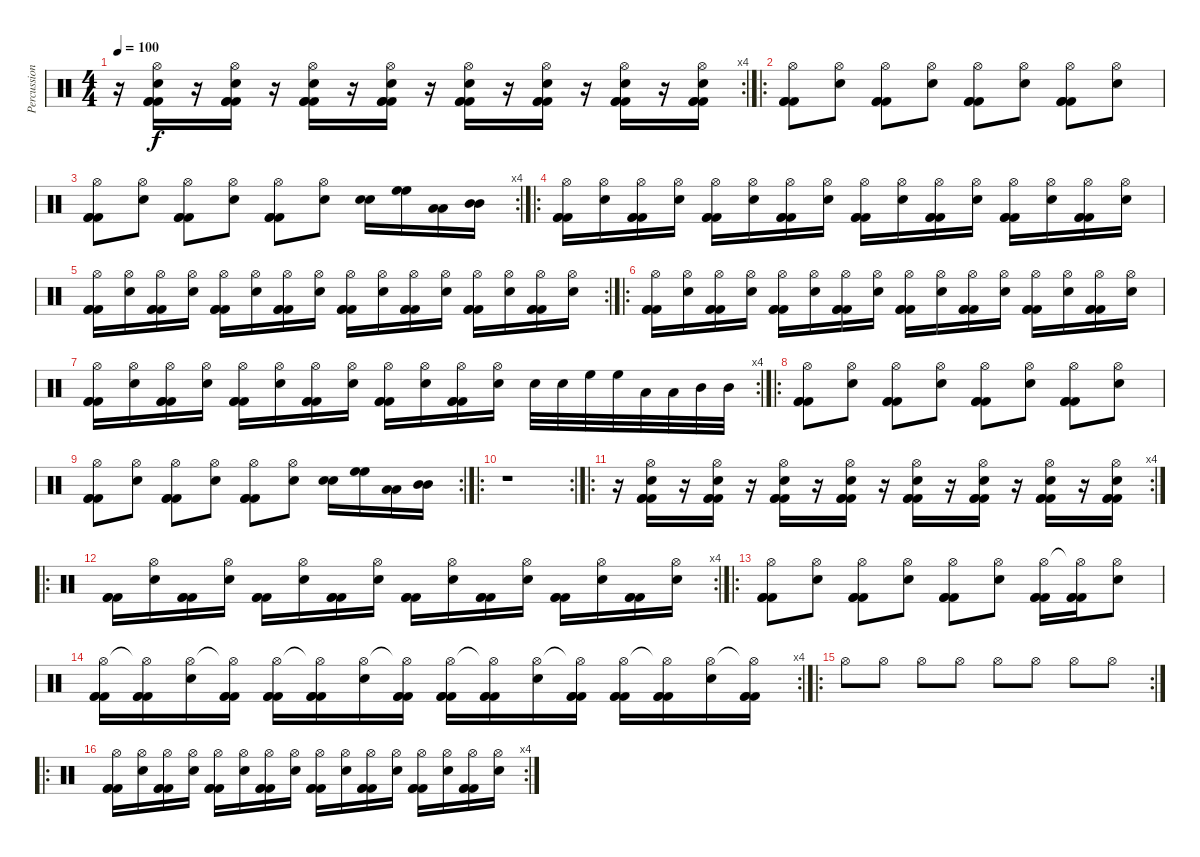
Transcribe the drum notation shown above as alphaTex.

\track ("Percussion" "Percussion") {instrument percussion}
\staff {score}
\articulation defaults
\rc 4
\ts (4 4)
\tempo 100
\clef neutral
\ks c
r.16{dy f} ("Hi-Hat (open)" "Snare (hit) 2" "Kick (hit) 2" "Kick (hit) 2" "Kick (hit) 2").16 r.16 ("Hi-Hat (open)" "Snare (hit) 2" "Kick (hit) 2" "Kick (hit) 2" "Kick (hit) 2").16 r.16 ("Hi-Hat (open)" "Snare (hit) 2" "Kick (hit) 2" "Kick (hit) 2" "Kick (hit) 2").16 r.16 ("Hi-Hat (open)" "Snare (hit) 2" "Kick (hit) 2" "Kick (hit) 2" "Kick (hit) 2").16 r.16 ("Hi-Hat (open)" "Snare (hit) 2" "Kick (hit) 2" "Kick (hit) 2" "Kick (hit) 2").16 r.16 ("Hi-Hat (open)" "Snare (hit) 2" "Kick (hit) 2" "Kick (hit) 2" "Kick (hit) 2").16 r.16 ("Hi-Hat (open)" "Snare (hit) 2" "Kick (hit) 2" "Kick (hit) 2" "Kick (hit) 2").16 r.16 ("Hi-Hat (open)" "Snare (hit) 2" "Kick (hit) 2" "Kick (hit) 2" "Kick (hit) 2").16 |
\ro
("Hi-Hat (open)" "Kick (hit) 2" "Kick (hit) 2" "Kick (hit) 2").8 ("Hi-Hat (open)" "Snare (hit) 2").8 ("Hi-Hat (open)" "Kick (hit) 2" "Kick (hit) 2" "Kick (hit) 2").8 ("Hi-Hat (open)" "Snare (hit) 2").8 ("Hi-Hat (open)" "Kick (hit) 2" "Kick (hit) 2" "Kick (hit) 2").8 ("Hi-Hat (open)" "Snare (hit) 2").8 ("Hi-Hat (open)" "Kick (hit) 2" "Kick (hit) 2" "Kick (hit) 2").8 ("Hi-Hat (open)" "Snare (hit) 2").8 |
\rc 4
("Hi-Hat (open)" "Kick (hit) 2" "Kick (hit) 2" "Kick (hit) 2").8 ("Hi-Hat (open)" "Snare (hit) 2").8 ("Hi-Hat (open)" "Kick (hit) 2" "Kick (hit) 2" "Kick (hit) 2").8 ("Hi-Hat (open)" "Snare (hit) 2").8 ("Hi-Hat (open)" "Kick (hit) 2" "Kick (hit) 2" "Kick (hit) 2").8 ("Hi-Hat (open)" "Snare (hit) 2").8 ("Snare (hit) 2" "Snare (hit) 2").16 ("High Floor Tom (hit)" "High Floor Tom (hit)").16 ("Low Tom (hit)" "Low Tom (hit)").16 ("Mid Tom (hit)" "Mid Tom (hit)").16 |
\ro
("Hi-Hat (open)" "Kick (hit) 2" "Kick (hit) 2" "Kick (hit) 2").16 ("Hi-Hat (open)" "Snare (hit) 2").16 ("Hi-Hat (open)" "Kick (hit) 2" "Kick (hit) 2" "Kick (hit) 2").16 ("Hi-Hat (open)" "Snare (hit) 2").16 ("Hi-Hat (open)" "Kick (hit) 2" "Kick (hit) 2" "Kick (hit) 2").16 ("Hi-Hat (open)" "Snare (hit) 2").16 ("Hi-Hat (open)" "Kick (hit) 2" "Kick (hit) 2" "Kick (hit) 2").16 ("Hi-Hat (open)" "Snare (hit) 2").16 ("Hi-Hat (open)" "Kick (hit) 2" "Kick (hit) 2" "Kick (hit) 2").16 ("Hi-Hat (open)" "Snare (hit) 2").16 ("Hi-Hat (open)" "Kick (hit) 2" "Kick (hit) 2" "Kick (hit) 2").16 ("Hi-Hat (open)" "Snare (hit) 2").16 ("Hi-Hat (open)" "Kick (hit) 2" "Kick (hit) 2" "Kick (hit) 2").16 ("Hi-Hat (open)" "Snare (hit) 2").16 ("Hi-Hat (open)" "Kick (hit) 2" "Kick (hit) 2" "Kick (hit) 2").16 ("Hi-Hat (open)" "Snare (hit) 2").16 |
\rc 2
("Hi-Hat (open)" "Kick (hit) 2" "Kick (hit) 2" "Kick (hit) 2").16 ("Hi-Hat (open)" "Snare (hit) 2").16 ("Hi-Hat (open)" "Kick (hit) 2" "Kick (hit) 2" "Kick (hit) 2").16 ("Hi-Hat (open)" "Snare (hit) 2").16 ("Hi-Hat (open)" "Kick (hit) 2" "Kick (hit) 2" "Kick (hit) 2").16 ("Hi-Hat (open)" "Snare (hit) 2").16 ("Hi-Hat (open)" "Kick (hit) 2" "Kick (hit) 2" "Kick (hit) 2").16 ("Hi-Hat (open)" "Snare (hit) 2").16 ("Hi-Hat (open)" "Kick (hit) 2" "Kick (hit) 2" "Kick (hit) 2").16 ("Hi-Hat (open)" "Snare (hit) 2").16 ("Hi-Hat (open)" "Kick (hit) 2" "Kick (hit) 2" "Kick (hit) 2").16 ("Hi-Hat (open)" "Snare (hit) 2").16 ("Hi-Hat (open)" "Kick (hit) 2" "Kick (hit) 2" "Kick (hit) 2").16 ("Hi-Hat (open)" "Snare (hit) 2").16 ("Hi-Hat (open)" "Kick (hit) 2" "Kick (hit) 2" "Kick (hit) 2").16 ("Hi-Hat (open)" "Snare (hit) 2").16 |
\ro
("Hi-Hat (open)" "Kick (hit) 2" "Kick (hit) 2" "Kick (hit) 2").16 ("Hi-Hat (open)" "Snare (hit) 2").16 ("Hi-Hat (open)" "Kick (hit) 2" "Kick (hit) 2" "Kick (hit) 2").16 ("Hi-Hat (open)" "Snare (hit) 2").16 ("Hi-Hat (open)" "Kick (hit) 2" "Kick (hit) 2" "Kick (hit) 2").16 ("Hi-Hat (open)" "Snare (hit) 2").16 ("Hi-Hat (open)" "Kick (hit) 2" "Kick (hit) 2" "Kick (hit) 2").16 ("Hi-Hat (open)" "Snare (hit) 2").16 ("Hi-Hat (open)" "Kick (hit) 2" "Kick (hit) 2" "Kick (hit) 2").16 ("Hi-Hat (open)" "Snare (hit) 2").16 ("Hi-Hat (open)" "Kick (hit) 2" "Kick (hit) 2" "Kick (hit) 2").16 ("Hi-Hat (open)" "Snare (hit) 2").16 ("Hi-Hat (open)" "Kick (hit) 2" "Kick (hit) 2" "Kick (hit) 2").16 ("Hi-Hat (open)" "Snare (hit) 2").16 ("Hi-Hat (open)" "Kick (hit) 2" "Kick (hit) 2" "Kick (hit) 2").16 ("Hi-Hat (open)" "Snare (hit) 2").16 |
\rc 4
("Hi-Hat (open)" "Kick (hit) 2" "Kick (hit) 2" "Kick (hit) 2").16 ("Hi-Hat (open)" "Snare (hit) 2").16 ("Hi-Hat (open)" "Kick (hit) 2" "Kick (hit) 2" "Kick (hit) 2").16 ("Hi-Hat (open)" "Snare (hit) 2").16 ("Hi-Hat (open)" "Kick (hit) 2" "Kick (hit) 2" "Kick (hit) 2").16 ("Hi-Hat (open)" "Snare (hit) 2").16 ("Hi-Hat (open)" "Kick (hit) 2" "Kick (hit) 2" "Kick (hit) 2").16 ("Hi-Hat (open)" "Snare (hit) 2").16 ("Hi-Hat (open)" "Kick (hit) 2" "Kick (hit) 2" "Kick (hit) 2").16 ("Hi-Hat (open)" "Snare (hit) 2").16 ("Hi-Hat (open)" "Kick (hit) 2" "Kick (hit) 2" "Kick (hit) 2").16 ("Hi-Hat (open)" "Snare (hit) 2").16 "Snare (hit) 2".32 "Snare (hit) 2".32 "High Floor Tom (hit)".32 "High Floor Tom (hit)".32 "Low Tom (hit)".32 "Low Tom (hit)".32 "Mid Tom (hit)".32 "Mid Tom (hit)".32 |
\ro
("Hi-Hat (open)" "Kick (hit) 2" "Kick (hit) 2" "Kick (hit) 2").8 ("Hi-Hat (open)" "Snare (hit) 2").8 ("Hi-Hat (open)" "Kick (hit) 2" "Kick (hit) 2" "Kick (hit) 2").8 ("Hi-Hat (open)" "Snare (hit) 2").8 ("Hi-Hat (open)" "Kick (hit) 2" "Kick (hit) 2" "Kick (hit) 2").8 ("Hi-Hat (open)" "Snare (hit) 2").8 ("Hi-Hat (open)" "Kick (hit) 2" "Kick (hit) 2" "Kick (hit) 2").8 ("Hi-Hat (open)" "Snare (hit) 2").8 |
\rc 2
("Hi-Hat (open)" "Kick (hit) 2" "Kick (hit) 2" "Kick (hit) 2").8 ("Hi-Hat (open)" "Snare (hit) 2").8 ("Hi-Hat (open)" "Kick (hit) 2" "Kick (hit) 2" "Kick (hit) 2").8 ("Hi-Hat (open)" "Snare (hit) 2").8 ("Hi-Hat (open)" "Kick (hit) 2" "Kick (hit) 2" "Kick (hit) 2").8 ("Hi-Hat (open)" "Snare (hit) 2").8 ("Snare (hit) 2" "Snare (hit) 2").16 ("High Floor Tom (hit)" "High Floor Tom (hit)").16 ("Low Tom (hit)" "Low Tom (hit)").16 ("Mid Tom (hit)" "Mid Tom (hit)").16 |
\ro
\rc 2
r.1 |
\ro
\rc 4
r.16 ("Hi-Hat (open)" "Snare (hit) 2" "Kick (hit) 2" "Kick (hit) 2" "Kick (hit) 2").16 r.16 ("Hi-Hat (open)" "Snare (hit) 2" "Kick (hit) 2" "Kick (hit) 2" "Kick (hit) 2").16 r.16 ("Hi-Hat (open)" "Snare (hit) 2" "Kick (hit) 2" "Kick (hit) 2" "Kick (hit) 2").16 r.16 ("Hi-Hat (open)" "Snare (hit) 2" "Kick (hit) 2" "Kick (hit) 2" "Kick (hit) 2").16 r.16 ("Hi-Hat (open)" "Snare (hit) 2" "Kick (hit) 2" "Kick (hit) 2" "Kick (hit) 2").16 r.16 ("Hi-Hat (open)" "Snare (hit) 2" "Kick (hit) 2" "Kick (hit) 2" "Kick (hit) 2").16 r.16 ("Hi-Hat (open)" "Snare (hit) 2" "Kick (hit) 2" "Kick (hit) 2" "Kick (hit) 2").16 r.16 ("Hi-Hat (open)" "Snare (hit) 2" "Kick (hit) 2" "Kick (hit) 2" "Kick (hit) 2").16 |
\ro
\rc 4
("Kick (hit) 2" "Kick (hit) 2" "Kick (hit) 2").16 ("Hi-Hat (open)" "Snare (hit) 2").16 ("Kick (hit) 2" "Kick (hit) 2" "Kick (hit) 2").16 ("Hi-Hat (open)" "Snare (hit) 2").16 ("Kick (hit) 2" "Kick (hit) 2" "Kick (hit) 2").16 ("Hi-Hat (open)" "Snare (hit) 2").16 ("Kick (hit) 2" "Kick (hit) 2" "Kick (hit) 2").16 ("Hi-Hat (open)" "Snare (hit) 2").16 ("Kick (hit) 2" "Kick (hit) 2" "Kick (hit) 2").16 ("Hi-Hat (open)" "Snare (hit) 2").16 ("Kick (hit) 2" "Kick (hit) 2" "Kick (hit) 2").16 ("Hi-Hat (open)" "Snare (hit) 2").16 ("Kick (hit) 2" "Kick (hit) 2" "Kick (hit) 2").16 ("Hi-Hat (open)" "Snare (hit) 2").16 ("Kick (hit) 2" "Kick (hit) 2" "Kick (hit) 2").16 ("Hi-Hat (open)" "Snare (hit) 2").16 |
\ro
("Hi-Hat (open)" "Kick (hit) 2" "Kick (hit) 2" "Kick (hit) 2").8 ("Hi-Hat (open)" "Snare (hit) 2").8 ("Hi-Hat (open)" "Kick (hit) 2" "Kick (hit) 2" "Kick (hit) 2").8 ("Hi-Hat (open)" "Snare (hit) 2").8 ("Hi-Hat (open)" "Kick (hit) 2" "Kick (hit) 2" "Kick (hit) 2").8 ("Hi-Hat (open)" "Snare (hit) 2").8 ("Hi-Hat (open)" "Kick (hit) 2" "Kick (hit) 2" "Kick (hit) 2").16 ("Hi-Hat (open)"{t} "Kick (hit) 2" "Kick (hit) 2" "Kick (hit) 2").16 ("Hi-Hat (open)" "Snare (hit) 2").8 |
\rc 4
("Hi-Hat (open)" "Kick (hit) 2" "Kick (hit) 2" "Kick (hit) 2").16 ("Hi-Hat (open)"{t} "Kick (hit) 2" "Kick (hit) 2" "Kick (hit) 2").16 ("Hi-Hat (open)" "Snare (hit) 2").16 ("Hi-Hat (open)"{t} "Kick (hit) 2" "Kick (hit) 2" "Kick (hit) 2").16 ("Hi-Hat (open)" "Kick (hit) 2" "Kick (hit) 2" "Kick (hit) 2").16 ("Hi-Hat (open)"{t} "Kick (hit) 2" "Kick (hit) 2" "Kick (hit) 2").16 ("Hi-Hat (open)" "Snare (hit) 2").16 ("Hi-Hat (open)"{t} "Kick (hit) 2" "Kick (hit) 2" "Kick (hit) 2").16 ("Hi-Hat (open)" "Kick (hit) 2" "Kick (hit) 2" "Kick (hit) 2").16 ("Hi-Hat (open)"{t} "Kick (hit) 2" "Kick (hit) 2" "Kick (hit) 2").16 ("Hi-Hat (open)" "Snare (hit) 2").16 ("Hi-Hat (open)"{t} "Kick (hit) 2" "Kick (hit) 2" "Kick (hit) 2").16 ("Hi-Hat (open)" "Kick (hit) 2" "Kick (hit) 2" "Kick (hit) 2").16 ("Hi-Hat (open)"{t} "Kick (hit) 2" "Kick (hit) 2" "Kick (hit) 2").16 ("Hi-Hat (open)" "Snare (hit) 2").16 ("Hi-Hat (open)"{t} "Kick (hit) 2" "Kick (hit) 2" "Kick (hit) 2").16 |
\ro
\rc 2 "Hi-Hat (open)".8 "Hi-Hat (open)".8 "Hi-Hat (open)".8 "Hi-Hat (open)".8 "Hi-Hat (open)".8 "Hi-Hat (open)".8 "Hi-Hat (open)".8 "Hi-Hat (open)".8
|
\ro
\rc 4
("Hi-Hat (open)" "Kick (hit) 2" "Kick (hit) 2" "Kick (hit) 2").16 ("Hi-Hat (open)" "Snare (hit) 2").16 ("Hi-Hat (open)" "Kick (hit) 2" "Kick (hit) 2" "Kick (hit) 2").16 ("Hi-Hat (open)" "Snare (hit) 2").16 ("Hi-Hat (open)" "Kick (hit) 2" "Kick (hit) 2" "Kick (hit) 2").16 ("Hi-Hat (open)" "Snare (hit) 2").16 ("Hi-Hat (open)" "Kick (hit) 2" "Kick (hit) 2" "Kick (hit) 2").16 ("Hi-Hat (open)" "Snare (hit) 2").16 ("Hi-Hat (open)" "Kick (hit) 2" "Kick (hit) 2" "Kick (hit) 2").16 ("Hi-Hat (open)" "Snare (hit) 2").16 ("Hi-Hat (open)" "Kick (hit) 2" "Kick (hit) 2" "Kick (hit) 2").16 ("Hi-Hat (open)" "Snare (hit) 2").16 ("Hi-Hat (open)" "Kick (hit) 2" "Kick (hit) 2" "Kick (hit) 2").16 ("Hi-Hat (open)" "Snare (hit) 2").16 ("Hi-Hat (open)" "Kick (hit) 2" "Kick (hit) 2" "Kick (hit) 2").16 ("Hi-Hat (open)" "Snare (hit) 2").16
